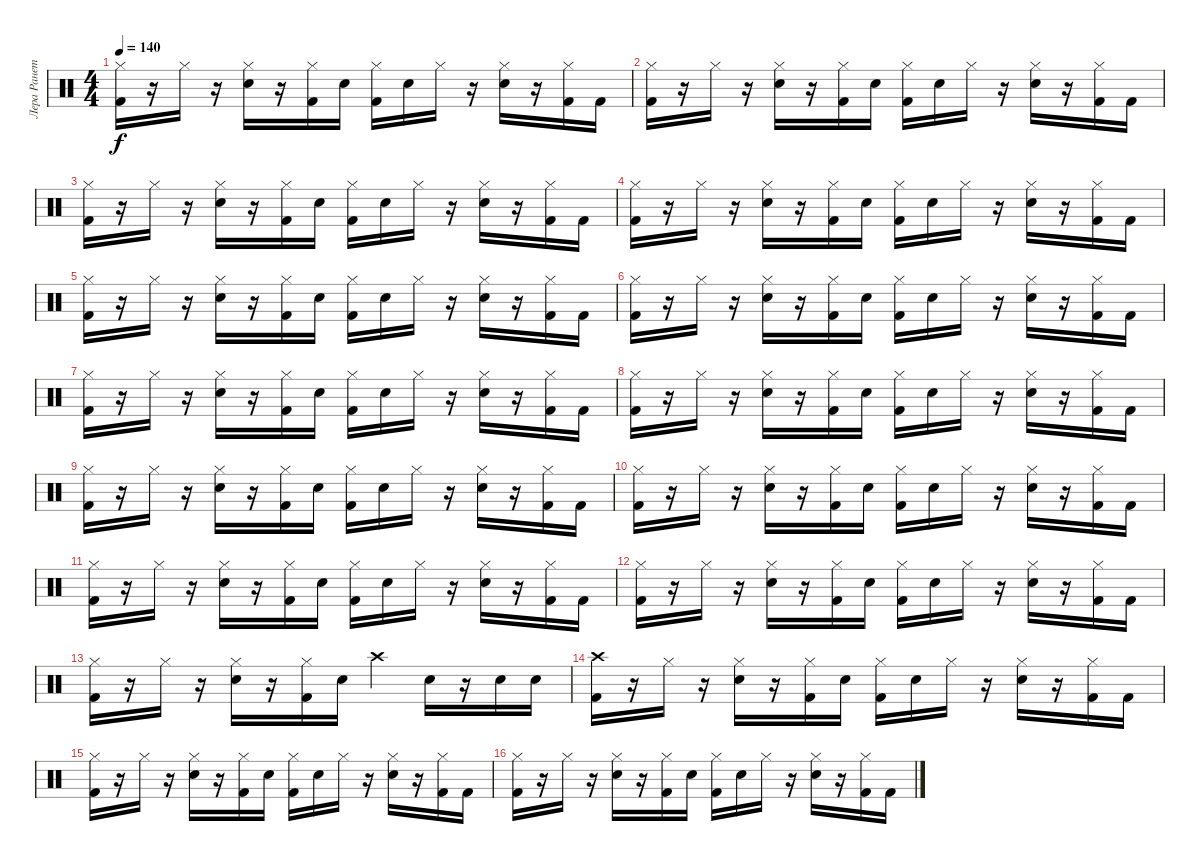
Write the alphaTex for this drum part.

\track ("Лера Ранетка" "Лера Ранет") {instrument percussion}
\staff {score}
\articulation defaults
\ts (4 4)
\tempo 140
\clef neutral
\ks c
("Hi-Hat (closed)" "Kick (hit) 2").16{dy f} r.16 "Hi-Hat (closed)".16 r.16 ("Hi-Hat (closed)" "Snare (hit) 2").16 r.16 ("Hi-Hat (closed)" "Kick (hit) 2").16 "Snare (hit) 2".16 ("Hi-Hat (closed)" "Kick (hit) 2").16 "Snare (hit) 2".16 "Hi-Hat (closed)".16 r.16 ("Hi-Hat (closed)" "Snare (hit) 2").16 r.16 ("Hi-Hat (closed)" "Kick (hit) 2").16 "Kick (hit) 2".16 |
("Hi-Hat (closed)" "Kick (hit) 2").16 r.16 "Hi-Hat (closed)".16 r.16 ("Hi-Hat (closed)" "Snare (hit) 2").16 r.16 ("Hi-Hat (closed)" "Kick (hit) 2").16 "Snare (hit) 2".16 ("Hi-Hat (closed)" "Kick (hit) 2").16 "Snare (hit) 2".16 "Hi-Hat (closed)".16 r.16 ("Hi-Hat (closed)" "Snare (hit) 2").16 r.16 ("Hi-Hat (closed)" "Kick (hit) 2").16 "Kick (hit) 2".16 |
("Hi-Hat (closed)" "Kick (hit) 2").16 r.16 "Hi-Hat (closed)".16 r.16 ("Hi-Hat (closed)" "Snare (hit) 2").16 r.16 ("Hi-Hat (closed)" "Kick (hit) 2").16 "Snare (hit) 2".16 ("Hi-Hat (closed)" "Kick (hit) 2").16 "Snare (hit) 2".16 "Hi-Hat (closed)".16 r.16 ("Hi-Hat (closed)" "Snare (hit) 2").16 r.16 ("Hi-Hat (closed)" "Kick (hit) 2").16 "Kick (hit) 2".16 |
("Hi-Hat (closed)" "Kick (hit) 2").16 r.16 "Hi-Hat (closed)".16 r.16 ("Hi-Hat (closed)" "Snare (hit) 2").16 r.16 ("Hi-Hat (closed)" "Kick (hit) 2").16 "Snare (hit) 2".16 ("Hi-Hat (closed)" "Kick (hit) 2").16 "Snare (hit) 2".16 "Hi-Hat (closed)".16 r.16 ("Hi-Hat (closed)" "Snare (hit) 2").16 r.16 ("Hi-Hat (closed)" "Kick (hit) 2").16 "Kick (hit) 2".16 |
("Hi-Hat (closed)" "Kick (hit) 2").16 r.16 "Hi-Hat (closed)".16 r.16 ("Hi-Hat (closed)" "Snare (hit) 2").16 r.16 ("Hi-Hat (closed)" "Kick (hit) 2").16 "Snare (hit) 2".16 ("Hi-Hat (closed)" "Kick (hit) 2").16 "Snare (hit) 2".16 "Hi-Hat (closed)".16 r.16 ("Hi-Hat (closed)" "Snare (hit) 2").16 r.16 ("Hi-Hat (closed)" "Kick (hit) 2").16 "Kick (hit) 2".16 |
("Hi-Hat (closed)" "Kick (hit) 2").16 r.16 "Hi-Hat (closed)".16 r.16 ("Hi-Hat (closed)" "Snare (hit) 2").16 r.16 ("Hi-Hat (closed)" "Kick (hit) 2").16 "Snare (hit) 2".16 ("Hi-Hat (closed)" "Kick (hit) 2").16 "Snare (hit) 2".16 "Hi-Hat (closed)".16 r.16 ("Hi-Hat (closed)" "Snare (hit) 2").16 r.16 ("Hi-Hat (closed)" "Kick (hit) 2").16 "Kick (hit) 2".16 |
("Hi-Hat (closed)" "Kick (hit) 2").16 r.16 "Hi-Hat (closed)".16 r.16 ("Hi-Hat (closed)" "Snare (hit) 2").16 r.16 ("Hi-Hat (closed)" "Kick (hit) 2").16 "Snare (hit) 2".16 ("Hi-Hat (closed)" "Kick (hit) 2").16 "Snare (hit) 2".16 "Hi-Hat (closed)".16 r.16 ("Hi-Hat (closed)" "Snare (hit) 2").16 r.16 ("Hi-Hat (closed)" "Kick (hit) 2").16 "Kick (hit) 2".16 |
("Hi-Hat (closed)" "Kick (hit) 2").16 r.16 "Hi-Hat (closed)".16 r.16 ("Hi-Hat (closed)" "Snare (hit) 2").16 r.16 ("Hi-Hat (closed)" "Kick (hit) 2").16 "Snare (hit) 2".16 ("Hi-Hat (closed)" "Kick (hit) 2").16 "Snare (hit) 2".16 "Hi-Hat (closed)".16 r.16 ("Hi-Hat (closed)" "Snare (hit) 2").16 r.16 ("Hi-Hat (closed)" "Kick (hit) 2").16 "Kick (hit) 2".16 |
("Hi-Hat (closed)" "Kick (hit) 2").16 r.16 "Hi-Hat (closed)".16 r.16 ("Hi-Hat (closed)" "Snare (hit) 2").16 r.16 ("Hi-Hat (closed)" "Kick (hit) 2").16 "Snare (hit) 2".16 ("Hi-Hat (closed)" "Kick (hit) 2").16 "Snare (hit) 2".16 "Hi-Hat (closed)".16 r.16 ("Hi-Hat (closed)" "Snare (hit) 2").16 r.16 ("Hi-Hat (closed)" "Kick (hit) 2").16 "Kick (hit) 2".16 |
("Hi-Hat (closed)" "Kick (hit) 2").16 r.16 "Hi-Hat (closed)".16 r.16 ("Hi-Hat (closed)" "Snare (hit) 2").16 r.16 ("Hi-Hat (closed)" "Kick (hit) 2").16 "Snare (hit) 2".16 ("Hi-Hat (closed)" "Kick (hit) 2").16 "Snare (hit) 2".16 "Hi-Hat (closed)".16 r.16 ("Hi-Hat (closed)" "Snare (hit) 2").16 r.16 ("Hi-Hat (closed)" "Kick (hit) 2").16 "Kick (hit) 2".16 |
("Hi-Hat (closed)" "Kick (hit) 2").16 r.16 "Hi-Hat (closed)".16 r.16 ("Hi-Hat (closed)" "Snare (hit) 2").16 r.16 ("Hi-Hat (closed)" "Kick (hit) 2").16 "Snare (hit) 2".16 ("Hi-Hat (closed)" "Kick (hit) 2").16 "Snare (hit) 2".16 "Hi-Hat (closed)".16 r.16 ("Hi-Hat (closed)" "Snare (hit) 2").16 r.16 ("Hi-Hat (closed)" "Kick (hit) 2").16 "Kick (hit) 2".16 |
("Hi-Hat (closed)" "Kick (hit) 2").16 r.16 "Hi-Hat (closed)".16 r.16 ("Hi-Hat (closed)" "Snare (hit) 2").16 r.16 ("Hi-Hat (closed)" "Kick (hit) 2").16 "Snare (hit) 2".16 ("Hi-Hat (closed)" "Kick (hit) 2").16 "Snare (hit) 2".16 "Hi-Hat (closed)".16 r.16 ("Hi-Hat (closed)" "Snare (hit) 2").16 r.16 ("Hi-Hat (closed)" "Kick (hit) 2").16 "Kick (hit) 2".16 |
("Hi-Hat (closed)" "Kick (hit) 2").16 r.16 "Hi-Hat (closed)".16 r.16 ("Hi-Hat (closed)" "Snare (hit) 2").16 r.16 ("Hi-Hat (closed)" "Kick (hit) 2").16 "Snare (hit) 2".16 "Crash high (hit)".4 "Electric Snare (hit)".16 r.16 "Electric Snare (hit)".16 "Electric Snare (hit)".16 |
("Crash high (hit)" "Kick (hit) 2").16 r.16 "Hi-Hat (closed)".16 r.16 ("Hi-Hat (closed)" "Snare (hit) 2").16 r.16 ("Hi-Hat (closed)" "Kick (hit) 2").16 "Snare (hit) 2".16 ("Hi-Hat (closed)" "Kick (hit) 2").16 "Snare (hit) 2".16 "Hi-Hat (closed)".16 r.16 ("Hi-Hat (closed)" "Snare (hit) 2").16 r.16 ("Hi-Hat (closed)" "Kick (hit) 2").16 "Kick (hit) 2".16 |
("Hi-Hat (closed)" "Kick (hit) 2").16 r.16 "Hi-Hat (closed)".16 r.16 ("Hi-Hat (closed)" "Snare (hit) 2").16 r.16 ("Hi-Hat (closed)" "Kick (hit) 2").16 "Snare (hit) 2".16 ("Hi-Hat (closed)" "Kick (hit) 2").16 "Snare (hit) 2".16 "Hi-Hat (closed)".16 r.16 ("Hi-Hat (closed)" "Snare (hit) 2").16 r.16 ("Hi-Hat (closed)" "Kick (hit) 2").16 "Kick (hit) 2".16 |
("Hi-Hat (closed)" "Kick (hit) 2").16 r.16 "Hi-Hat (closed)".16 r.16 ("Hi-Hat (closed)" "Snare (hit) 2").16 r.16 ("Hi-Hat (closed)" "Kick (hit) 2").16 "Snare (hit) 2".16 ("Hi-Hat (closed)" "Kick (hit) 2").16 "Snare (hit) 2".16 "Hi-Hat (closed)".16 r.16 ("Hi-Hat (closed)" "Snare (hit) 2").16 r.16 ("Hi-Hat (closed)" "Kick (hit) 2").16 "Kick (hit) 2".16
